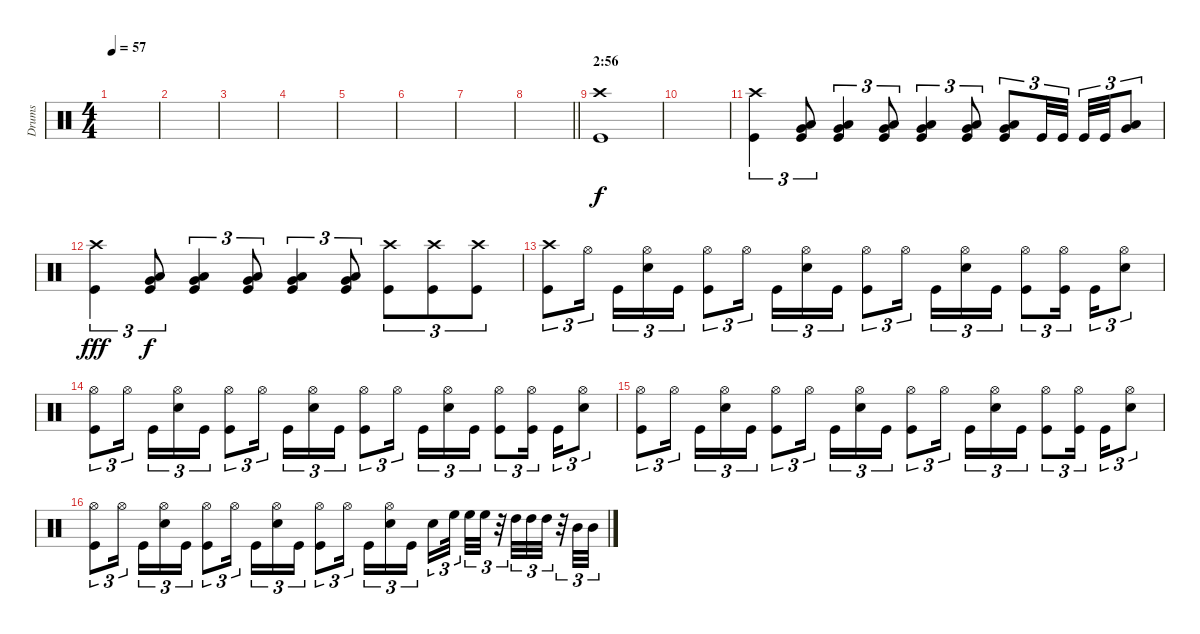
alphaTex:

\track ("Drums" "Drums") {instrument percussion}
\staff {score}
\articulation defaults
\ts (4 4)
\tempo 57
\clef neutral
\ks c
|
|
|
|
|
|
|
\barLineRight lightlight
|
\section ("" "2:56")
("Kick (hit)" "Crash high (hit)").1 |
|
("Crash high (hit)" "Kick (hit)").4{tu (3 2)} ("Low Tom (hit)" "Very Low Tom (hit)" "Kick (hit)").8{tu (3 2) dy f} ("Low Tom (hit)" "Very Low Tom (hit)" "Kick (hit)").4{tu (3 2)} ("Low Tom (hit)" "Very Low Tom (hit)" "Kick (hit)").8{tu (3 2)} ("Low Tom (hit)" "Very Low Tom (hit)" "Kick (hit)").4{tu (3 2)} ("Low Tom (hit)" "Very Low Tom (hit)" "Kick (hit)").8{tu (3 2)} ("Low Tom (hit)" "Very Low Tom (hit)" "Kick (hit)").8{tu (3 2)} "Kick (hit)".32{tu (3 2)} "Kick (hit)".32{tu (3 2) beam splitsecondary} "Kick (hit)".32{tu (3 2)} "Kick (hit)".32{tu (3 2)} ("Very Low Tom (hit)" "Low Tom (hit)").8{tu (3 2)} |
("Crash high (hit)" "Kick (hit)").4{tu (3 2) dy fff} ("Low Tom (hit)" "Very Low Tom (hit)" "Kick (hit)").8{tu (3 2) dy f} ("Low Tom (hit)" "Very Low Tom (hit)" "Kick (hit)").4{tu (3 2)} ("Low Tom (hit)" "Very Low Tom (hit)" "Kick (hit)").8{tu (3 2)} ("Low Tom (hit)" "Very Low Tom (hit)" "Kick (hit)").4{tu (3 2)} ("Low Tom (hit)" "Very Low Tom (hit)" "Kick (hit)").8{tu (3 2)} ("Crash high (hit)" "Kick (hit)").8{tu (3 2)} ("Kick (hit)" "Crash high (hit)").8{tu (3 2)} ("Kick (hit)" "Crash high (hit)").8{tu (3 2)} |
("Kick (hit)" "Crash high (hit)").8{tu (3 2)} "Hi-Hat (open)".16{tu (3 2) beam splitsecondary} "Kick (hit)".16{tu (3 2)} ("Snare (hit) 2" "Hi-Hat (open)").16{tu (3 2)} "Kick (hit)".16{tu (3 2)} ("Kick (hit)" "Hi-Hat (open)").8{tu (3 2)} "Hi-Hat (open)".16{tu (3 2) beam splitsecondary} "Kick (hit)".16{tu (3 2)} ("Snare (hit) 2" "Hi-Hat (open)").16{tu (3 2)} "Kick (hit)".16{tu (3 2)} ("Kick (hit)" "Hi-Hat (open)").8{tu (3 2)} "Hi-Hat (open)".16{tu (3 2) beam splitsecondary} "Kick (hit)".16{tu (3 2)} ("Snare (hit) 2" "Hi-Hat (open)").16{tu (3 2)} "Kick (hit)".16{tu (3 2)} ("Kick (hit)" "Hi-Hat (open)").8{tu (3 2)} ("Hi-Hat (open)" "Kick (hit)").16{tu (3 2) beam splitsecondary} "Kick (hit)".16{tu (3 2)} ("Snare (hit) 2" "Hi-Hat (open)").8{tu (3 2)} |
("Kick (hit)" "Hi-Hat (open)").8{tu (3 2)} "Hi-Hat (open)".16{tu (3 2) beam splitsecondary} "Kick (hit)".16{tu (3 2)} ("Snare (hit) 2" "Hi-Hat (open)").16{tu (3 2)} "Kick (hit)".16{tu (3 2)} ("Kick (hit)" "Hi-Hat (open)").8{tu (3 2)} "Hi-Hat (open)".16{tu (3 2) beam splitsecondary} "Kick (hit)".16{tu (3 2)} ("Snare (hit) 2" "Hi-Hat (open)").16{tu (3 2)} "Kick (hit)".16{tu (3 2)} ("Kick (hit)" "Hi-Hat (open)").8{tu (3 2)} "Hi-Hat (open)".16{tu (3 2) beam splitsecondary} "Kick (hit)".16{tu (3 2)} ("Snare (hit) 2" "Hi-Hat (open)").16{tu (3 2)} "Kick (hit)".16{tu (3 2)} ("Kick (hit)" "Hi-Hat (open)").8{tu (3 2)} ("Hi-Hat (open)" "Kick (hit)").16{tu (3 2) beam splitsecondary} "Kick (hit)".16{tu (3 2)} ("Snare (hit) 2" "Hi-Hat (open)").8{tu (3 2)} |
("Kick (hit)" "Hi-Hat (open)").8{tu (3 2)} "Hi-Hat (open)".16{tu (3 2) beam splitsecondary} "Kick (hit)".16{tu (3 2)} ("Snare (hit) 2" "Hi-Hat (open)").16{tu (3 2)} "Kick (hit)".16{tu (3 2)} ("Kick (hit)" "Hi-Hat (open)").8{tu (3 2)} "Hi-Hat (open)".16{tu (3 2) beam splitsecondary} "Kick (hit)".16{tu (3 2)} ("Snare (hit) 2" "Hi-Hat (open)").16{tu (3 2)} "Kick (hit)".16{tu (3 2)} ("Kick (hit)" "Hi-Hat (open)").8{tu (3 2)} "Hi-Hat (open)".16{tu (3 2) beam splitsecondary} "Kick (hit)".16{tu (3 2)} ("Snare (hit) 2" "Hi-Hat (open)").16{tu (3 2)} "Kick (hit)".16{tu (3 2)} ("Kick (hit)" "Hi-Hat (open)").8{tu (3 2)} ("Hi-Hat (open)" "Kick (hit)").16{tu (3 2) beam splitsecondary} "Kick (hit)".16{tu (3 2)} ("Snare (hit) 2" "Hi-Hat (open)").8{tu (3 2)} |
("Kick (hit)" "Hi-Hat (open)").8{tu (3 2)} "Hi-Hat (open)".16{tu (3 2) beam splitsecondary} "Kick (hit)".16{tu (3 2)} ("Snare (hit) 2" "Hi-Hat (open)").16{tu (3 2)} "Kick (hit)".16{tu (3 2)} ("Kick (hit)" "Hi-Hat (open)").8{tu (3 2)} "Hi-Hat (open)".16{tu (3 2) beam splitsecondary} "Kick (hit)".16{tu (3 2)} ("Snare (hit) 2" "Hi-Hat (open)").16{tu (3 2)} "Kick (hit)".16{tu (3 2)} ("Kick (hit)" "Hi-Hat (open)").8{tu (3 2)} "Hi-Hat (open)".16{tu (3 2) beam splitsecondary} "Kick (hit)".16{tu (3 2)} ("Snare (hit) 2" "Hi-Hat (open)").16{tu (3 2)} "Kick (hit)".16{tu (3 2)} "Snare (hit) 2".16{tu (3 2)} "High Floor Tom (hit)".32{tu (3 2) beam splitsecondary} "High Floor Tom (hit)".32{tu (3 2)} "High Floor Tom (hit)".32{tu (3 2)} r.32{tu (3 2)} "High Tom (hit)".32{tu (3 2)} "High Tom (hit)".32{tu (3 2)} "High Tom (hit)".32{tu (3 2)} r.32{tu (3 2)} "Mid Tom (hit)".32{tu (3 2)} "Mid Tom (hit)".32{tu (3 2)}
